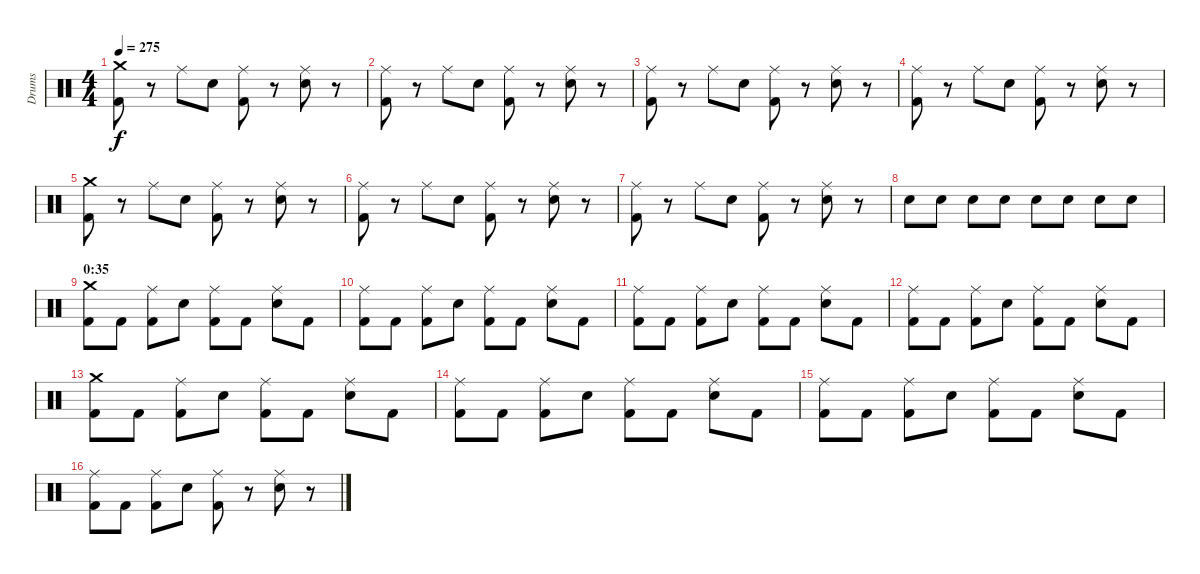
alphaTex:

\track ("Drums" "Drums") {instrument percussion}
\staff {score}
\articulation defaults
\ts (4 4)
\tempo 275
\clef neutral
\ks c
("Crash medium (hit)" "Kick (hit) 2").8{dy f} r.8 "Ride (middle)".8 "Electric Snare (hit)".8 ("Ride (middle)" "Kick (hit) 2").8 r.8 ("Ride (middle)" "Electric Snare (hit)").8 r.8 |
("Ride (middle)" "Kick (hit) 2").8 r.8 "Ride (middle)".8 "Electric Snare (hit)".8 ("Ride (middle)" "Kick (hit) 2").8 r.8 ("Ride (middle)" "Electric Snare (hit)").8 r.8 |
("Ride (middle)" "Kick (hit) 2").8 r.8 "Ride (middle)".8 "Electric Snare (hit)".8 ("Ride (middle)" "Kick (hit) 2").8 r.8 ("Ride (middle)" "Electric Snare (hit)").8 r.8 |
("Ride (middle)" "Kick (hit) 2").8 r.8 "Ride (middle)".8 "Electric Snare (hit)".8 ("Ride (middle)" "Kick (hit) 2").8 r.8 ("Ride (middle)" "Electric Snare (hit)").8 r.8 |
("Crash medium (hit)" "Kick (hit) 2").8 r.8 "Ride (middle)".8 "Electric Snare (hit)".8 ("Ride (middle)" "Kick (hit) 2").8 r.8 ("Ride (middle)" "Electric Snare (hit)").8 r.8 |
("Ride (middle)" "Kick (hit) 2").8 r.8 "Ride (middle)".8 "Electric Snare (hit)".8 ("Ride (middle)" "Kick (hit) 2").8 r.8 ("Ride (middle)" "Electric Snare (hit)").8 r.8 |
("Ride (middle)" "Kick (hit) 2").8 r.8 "Ride (middle)".8 "Electric Snare (hit)".8 ("Ride (middle)" "Kick (hit) 2").8 r.8 ("Ride (middle)" "Electric Snare (hit)").8 r.8 |
"Electric Snare (hit)".8 "Electric Snare (hit)".8 "Electric Snare (hit)".8 "Electric Snare (hit)".8 "Electric Snare (hit)".8 "Electric Snare (hit)".8 "Electric Snare (hit)".8 "Electric Snare (hit)".8 |
\section ("" "0:35")
("Crash medium (hit)" "Kick (hit) 2").8 "Kick (hit) 2".8 ("Ride (middle)" "Kick (hit) 2").8 "Electric Snare (hit)".8 ("Ride (middle)" "Kick (hit) 2").8 "Kick (hit) 2".8 ("Ride (middle)" "Electric Snare (hit)").8 "Kick (hit) 2".8 |
("Ride (middle)" "Kick (hit) 2").8 "Kick (hit) 2".8 ("Ride (middle)" "Kick (hit) 2").8 "Electric Snare (hit)".8 ("Ride (middle)" "Kick (hit) 2").8 "Kick (hit) 2".8 ("Ride (middle)" "Electric Snare (hit)").8 "Kick (hit) 2".8 |
("Ride (middle)" "Kick (hit) 2").8 "Kick (hit) 2".8 ("Ride (middle)" "Kick (hit) 2").8 "Electric Snare (hit)".8 ("Ride (middle)" "Kick (hit) 2").8 "Kick (hit) 2".8 ("Ride (middle)" "Electric Snare (hit)").8 "Kick (hit) 2".8 |
("Ride (middle)" "Kick (hit) 2").8 "Kick (hit) 2".8 ("Ride (middle)" "Kick (hit) 2").8 "Electric Snare (hit)".8 ("Ride (middle)" "Kick (hit) 2").8 "Kick (hit) 2".8 ("Ride (middle)" "Electric Snare (hit)").8 "Kick (hit) 2".8 |
("Crash medium (hit)" "Kick (hit) 2").8 "Kick (hit) 2".8 ("Ride (middle)" "Kick (hit) 2").8 "Electric Snare (hit)".8 ("Ride (middle)" "Kick (hit) 2").8 "Kick (hit) 2".8 ("Ride (middle)" "Electric Snare (hit)").8 "Kick (hit) 2".8 |
("Ride (middle)" "Kick (hit) 2").8 "Kick (hit) 2".8 ("Ride (middle)" "Kick (hit) 2").8 "Electric Snare (hit)".8 ("Ride (middle)" "Kick (hit) 2").8 "Kick (hit) 2".8 ("Ride (middle)" "Electric Snare (hit)").8 "Kick (hit) 2".8 |
("Ride (middle)" "Kick (hit) 2").8 "Kick (hit) 2".8 ("Ride (middle)" "Kick (hit) 2").8 "Electric Snare (hit)".8 ("Ride (middle)" "Kick (hit) 2").8 "Kick (hit) 2".8 ("Ride (middle)" "Electric Snare (hit)").8 "Kick (hit) 2".8 |
("Ride (middle)" "Kick (hit) 2").8 "Kick (hit) 2".8 ("Ride (middle)" "Kick (hit) 2").8 "Electric Snare (hit)".8 ("Ride (middle)" "Kick (hit) 2").8 r.8 ("Ride (middle)" "Electric Snare (hit)").8 r.8
